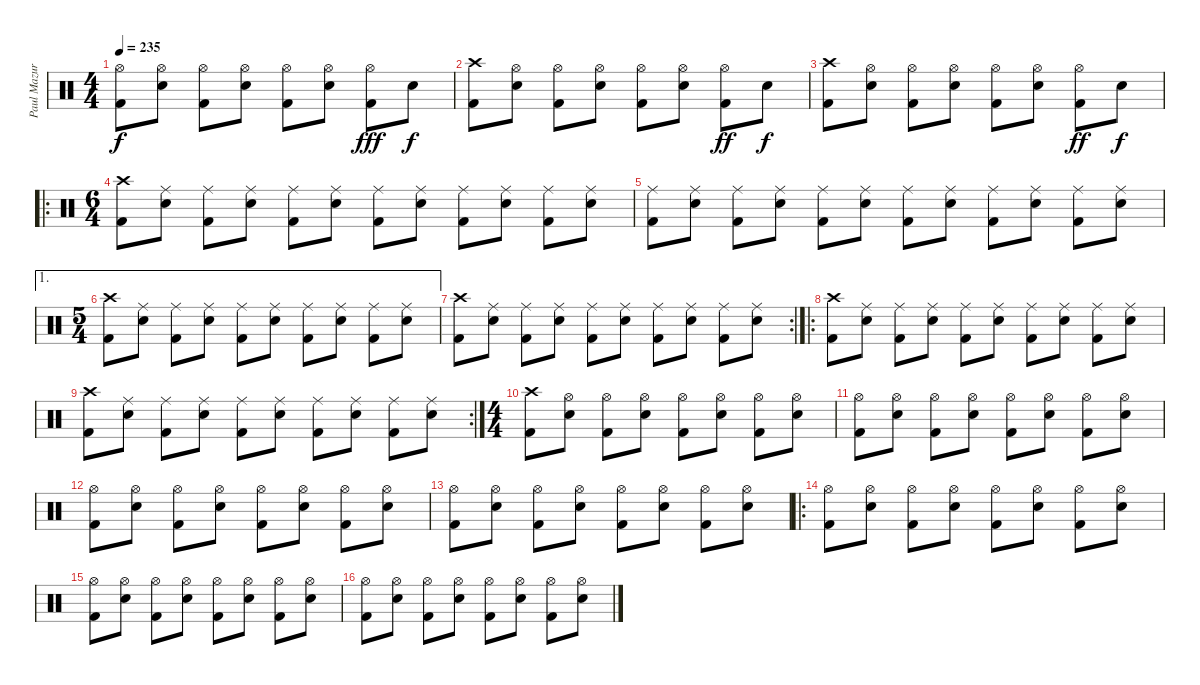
\track ("Paul Mazurkiewicz" "Paul Mazur") {instrument percussion}
\staff {score}
\articulation defaults
\ts (4 4)
\tempo 235
\clef neutral
\ks c
("Hi-Hat (open)" "Kick (hit) 2").8{dy f} ("Hi-Hat (open)" "Electric Snare (hit)").8 ("Hi-Hat (open)" "Kick (hit) 2").8 ("Hi-Hat (open)" "Electric Snare (hit)").8 ("Hi-Hat (open)" "Kick (hit) 2").8 ("Hi-Hat (open)" "Electric Snare (hit)").8 ("Hi-Hat (open)" "Kick (hit) 2").8{dy fff} "Electric Snare (hit)".8{dy f} |
("Crash high (hit)" "Kick (hit) 2").8 ("Hi-Hat (open)" "Electric Snare (hit)").8 ("Hi-Hat (open)" "Kick (hit) 2").8 ("Hi-Hat (open)" "Electric Snare (hit)").8 ("Hi-Hat (open)" "Kick (hit) 2").8 ("Hi-Hat (open)" "Electric Snare (hit)").8 ("Hi-Hat (open)" "Kick (hit) 2").8{dy ff} "Electric Snare (hit)".8{dy f} |
("Crash high (hit)" "Kick (hit) 2").8 ("Hi-Hat (open)" "Electric Snare (hit)").8 ("Hi-Hat (open)" "Kick (hit) 2").8 ("Hi-Hat (open)" "Electric Snare (hit)").8 ("Hi-Hat (open)" "Kick (hit) 2").8 ("Hi-Hat (open)" "Electric Snare (hit)").8 ("Hi-Hat (open)" "Kick (hit) 2").8{dy ff} "Electric Snare (hit)".8{dy f} |
\ro
\ts (6 4)
("Crash high (hit)" "Kick (hit) 2").8 ("Ride (middle)" "Electric Snare (hit)").8 ("Ride (middle)" "Kick (hit) 2").8 ("Ride (middle)" "Electric Snare (hit)").8 ("Ride (middle)" "Kick (hit) 2").8 ("Ride (middle)" "Electric Snare (hit)").8 ("Ride (middle)" "Kick (hit) 2").8 ("Ride (middle)" "Electric Snare (hit)").8 ("Ride (middle)" "Kick (hit) 2").8 ("Ride (middle)" "Electric Snare (hit)").8 ("Ride (middle)" "Kick (hit) 2").8 ("Ride (middle)" "Electric Snare (hit)").8 |
("Ride (middle)" "Kick (hit) 2").8 ("Ride (middle)" "Electric Snare (hit)").8 ("Ride (middle)" "Kick (hit) 2").8 ("Ride (middle)" "Electric Snare (hit)").8 ("Ride (middle)" "Kick (hit) 2").8 ("Ride (middle)" "Electric Snare (hit)").8 ("Ride (middle)" "Kick (hit) 2").8 ("Ride (middle)" "Electric Snare (hit)").8 ("Ride (middle)" "Kick (hit) 2").8 ("Ride (middle)" "Electric Snare (hit)").8 ("Ride (middle)" "Kick (hit) 2").8 ("Ride (middle)" "Electric Snare (hit)").8 |
\ae 1
\ts (5 4)
("Crash high (hit)" "Kick (hit) 2").8 ("Ride (middle)" "Electric Snare (hit)").8 ("Ride (middle)" "Kick (hit) 2").8 ("Ride (middle)" "Electric Snare (hit)").8 ("Ride (middle)" "Kick (hit) 2").8 ("Ride (middle)" "Electric Snare (hit)").8 ("Ride (middle)" "Kick (hit) 2").8 ("Ride (middle)" "Electric Snare (hit)").8 ("Ride (middle)" "Kick (hit) 2").8 ("Ride (middle)" "Electric Snare (hit)").8 |
\rc 2
("Crash high (hit)" "Kick (hit) 2").8 ("Ride (middle)" "Electric Snare (hit)").8 ("Ride (middle)" "Kick (hit) 2").8 ("Ride (middle)" "Electric Snare (hit)").8 ("Ride (middle)" "Kick (hit) 2").8 ("Ride (middle)" "Electric Snare (hit)").8 ("Ride (middle)" "Kick (hit) 2").8 ("Ride (middle)" "Electric Snare (hit)").8 ("Ride (middle)" "Kick (hit) 2").8 ("Ride (middle)" "Electric Snare (hit)").8 |
\ro
("Crash high (hit)" "Kick (hit) 2").8 ("Ride (middle)" "Electric Snare (hit)").8 ("Ride (middle)" "Kick (hit) 2").8 ("Ride (middle)" "Electric Snare (hit)").8 ("Ride (middle)" "Kick (hit) 2").8 ("Ride (middle)" "Electric Snare (hit)").8 ("Ride (middle)" "Kick (hit) 2").8 ("Ride (middle)" "Electric Snare (hit)").8 ("Ride (middle)" "Kick (hit) 2").8 ("Ride (middle)" "Electric Snare (hit)").8 |
\rc 2
("Crash high (hit)" "Kick (hit) 2").8 ("Ride (middle)" "Electric Snare (hit)").8 ("Ride (middle)" "Kick (hit) 2").8 ("Ride (middle)" "Electric Snare (hit)").8 ("Ride (middle)" "Kick (hit) 2").8 ("Ride (middle)" "Electric Snare (hit)").8 ("Ride (middle)" "Kick (hit) 2").8 ("Ride (middle)" "Electric Snare (hit)").8 ("Ride (middle)" "Kick (hit) 2").8 ("Ride (middle)" "Electric Snare (hit)").8 |
\ts (4 4)
("Crash high (hit)" "Kick (hit) 2").8 ("Hi-Hat (open)" "Electric Snare (hit)").8 ("Hi-Hat (open)" "Kick (hit) 2").8 ("Hi-Hat (open)" "Electric Snare (hit)").8 ("Hi-Hat (open)" "Kick (hit) 2").8 ("Hi-Hat (open)" "Electric Snare (hit)").8 ("Hi-Hat (open)" "Kick (hit) 2").8 ("Hi-Hat (open)" "Electric Snare (hit)").8 |
("Hi-Hat (open)" "Kick (hit) 2").8 ("Hi-Hat (open)" "Electric Snare (hit)").8 ("Hi-Hat (open)" "Kick (hit) 2").8 ("Hi-Hat (open)" "Electric Snare (hit)").8 ("Hi-Hat (open)" "Kick (hit) 2").8 ("Hi-Hat (open)" "Electric Snare (hit)").8 ("Hi-Hat (open)" "Kick (hit) 2").8 ("Hi-Hat (open)" "Electric Snare (hit)").8 |
("Hi-Hat (open)" "Kick (hit) 2").8 ("Hi-Hat (open)" "Electric Snare (hit)").8 ("Hi-Hat (open)" "Kick (hit) 2").8 ("Hi-Hat (open)" "Electric Snare (hit)").8 ("Hi-Hat (open)" "Kick (hit) 2").8 ("Hi-Hat (open)" "Electric Snare (hit)").8 ("Hi-Hat (open)" "Kick (hit) 2").8 ("Hi-Hat (open)" "Electric Snare (hit)").8 |
("Hi-Hat (open)" "Kick (hit) 2").8 ("Hi-Hat (open)" "Electric Snare (hit)").8 ("Hi-Hat (open)" "Kick (hit) 2").8 ("Hi-Hat (open)" "Electric Snare (hit)").8 ("Hi-Hat (open)" "Kick (hit) 2").8 ("Hi-Hat (open)" "Electric Snare (hit)").8 ("Hi-Hat (open)" "Kick (hit) 2").8 ("Hi-Hat (open)" "Electric Snare (hit)").8 |
\ro
("Hi-Hat (open)" "Kick (hit) 2").8 ("Hi-Hat (open)" "Electric Snare (hit)").8 ("Hi-Hat (open)" "Kick (hit) 2").8 ("Hi-Hat (open)" "Electric Snare (hit)").8 ("Hi-Hat (open)" "Kick (hit) 2").8 ("Hi-Hat (open)" "Electric Snare (hit)").8 ("Hi-Hat (open)" "Kick (hit) 2").8 ("Hi-Hat (open)" "Electric Snare (hit)").8 |
("Hi-Hat (open)" "Kick (hit) 2").8 ("Hi-Hat (open)" "Electric Snare (hit)").8 ("Hi-Hat (open)" "Kick (hit) 2").8 ("Hi-Hat (open)" "Electric Snare (hit)").8 ("Hi-Hat (open)" "Kick (hit) 2").8 ("Hi-Hat (open)" "Electric Snare (hit)").8 ("Hi-Hat (open)" "Kick (hit) 2").8 ("Hi-Hat (open)" "Electric Snare (hit)").8 |
("Hi-Hat (open)" "Kick (hit) 2").8 ("Hi-Hat (open)" "Electric Snare (hit)").8 ("Hi-Hat (open)" "Kick (hit) 2").8 ("Hi-Hat (open)" "Electric Snare (hit)").8 ("Hi-Hat (open)" "Kick (hit) 2").8 ("Hi-Hat (open)" "Electric Snare (hit)").8 ("Hi-Hat (open)" "Kick (hit) 2").8 ("Hi-Hat (open)" "Electric Snare (hit)").8
